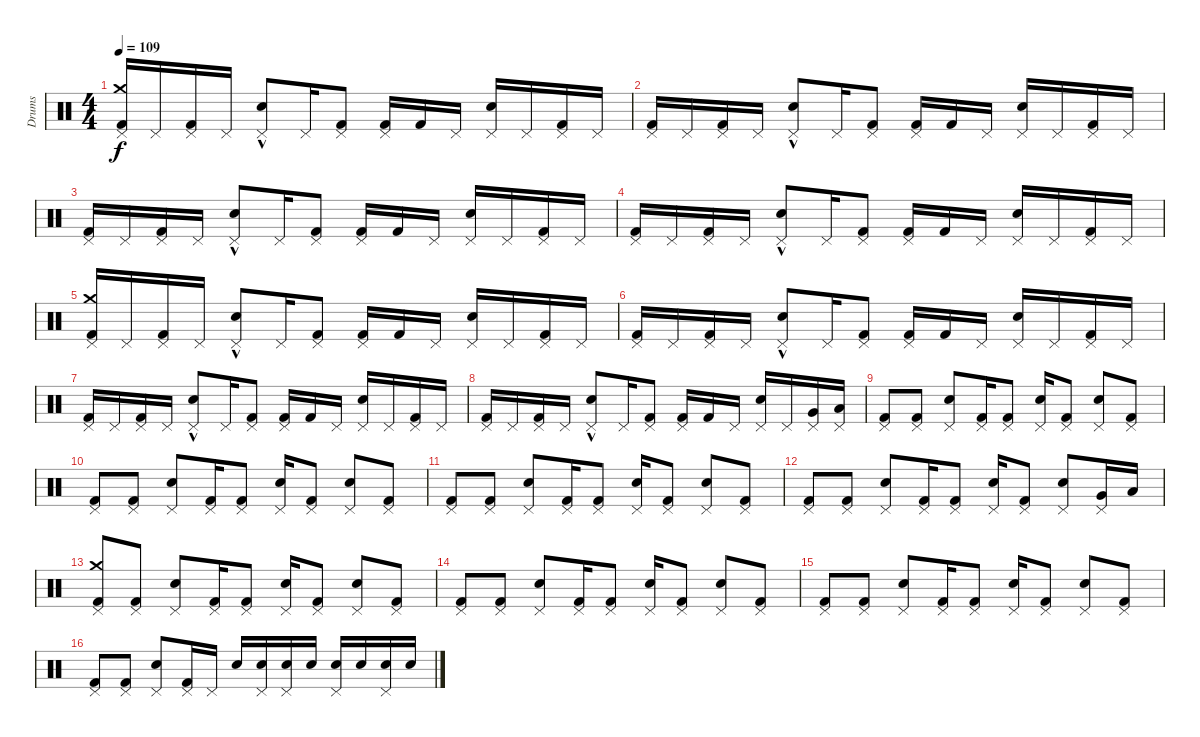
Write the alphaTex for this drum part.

\track ("Drums" "Drums") {instrument percussion}
\staff {score}
\articulation defaults
\ts (4 4)
\tempo 109
\clef neutral
\ks c
("Pedal Hi-Hat (hit)" "Crash medium (hit)" "Kick (hit) 2").16{dy f} "Pedal Hi-Hat (hit)".16 ("Pedal Hi-Hat (hit)" "Kick (hit) 2").16 "Pedal Hi-Hat (hit)".16 ("Pedal Hi-Hat (hit)" "Snare (hit) 2"{hac}).8 "Pedal Hi-Hat (hit)".16 ("Pedal Hi-Hat (hit)" "Kick (hit) 2").8 ("Pedal Hi-Hat (hit)" "Kick (hit) 2").16 "Kick (hit) 2".16 "Pedal Hi-Hat (hit)".16 ("Pedal Hi-Hat (hit)" "Snare (hit) 2").16 "Pedal Hi-Hat (hit)".16 ("Pedal Hi-Hat (hit)" "Kick (hit) 2").16 "Pedal Hi-Hat (hit)".16 |
("Kick (hit) 2" "Pedal Hi-Hat (hit)").16 "Pedal Hi-Hat (hit)".16 ("Kick (hit) 2" "Pedal Hi-Hat (hit)").16 "Pedal Hi-Hat (hit)".16 ("Snare (hit) 2"{hac} "Pedal Hi-Hat (hit)").8 "Pedal Hi-Hat (hit)".16 ("Kick (hit) 2" "Pedal Hi-Hat (hit)").8 ("Kick (hit) 2" "Pedal Hi-Hat (hit)").16 "Kick (hit) 2".16 "Pedal Hi-Hat (hit)".16 ("Snare (hit) 2" "Pedal Hi-Hat (hit)").16 "Pedal Hi-Hat (hit)".16 ("Kick (hit) 2" "Pedal Hi-Hat (hit)").16 "Pedal Hi-Hat (hit)".16 |
("Pedal Hi-Hat (hit)" "Kick (hit) 2").16 "Pedal Hi-Hat (hit)".16 ("Pedal Hi-Hat (hit)" "Kick (hit) 2").16 "Pedal Hi-Hat (hit)".16 ("Pedal Hi-Hat (hit)" "Snare (hit) 2"{hac}).8 "Pedal Hi-Hat (hit)".16 ("Pedal Hi-Hat (hit)" "Kick (hit) 2").8 ("Pedal Hi-Hat (hit)" "Kick (hit) 2").16 "Kick (hit) 2".16 "Pedal Hi-Hat (hit)".16 ("Pedal Hi-Hat (hit)" "Snare (hit) 2").16 "Pedal Hi-Hat (hit)".16 ("Pedal Hi-Hat (hit)" "Kick (hit) 2").16 "Pedal Hi-Hat (hit)".16 |
("Pedal Hi-Hat (hit)" "Kick (hit) 2").16 "Pedal Hi-Hat (hit)".16 ("Pedal Hi-Hat (hit)" "Kick (hit) 2").16 "Pedal Hi-Hat (hit)".16 ("Pedal Hi-Hat (hit)" "Snare (hit) 2"{hac}).8 "Pedal Hi-Hat (hit)".16 ("Pedal Hi-Hat (hit)" "Kick (hit) 2").8 ("Pedal Hi-Hat (hit)" "Kick (hit) 2").16 "Kick (hit) 2".16 "Pedal Hi-Hat (hit)".16 ("Pedal Hi-Hat (hit)" "Snare (hit) 2").16 "Pedal Hi-Hat (hit)".16 ("Pedal Hi-Hat (hit)" "Kick (hit) 2").16 "Pedal Hi-Hat (hit)".16 |
("Crash medium (hit)" "Kick (hit) 2" "Pedal Hi-Hat (hit)").16 "Pedal Hi-Hat (hit)".16 ("Kick (hit) 2" "Pedal Hi-Hat (hit)").16 "Pedal Hi-Hat (hit)".16 ("Snare (hit) 2"{hac} "Pedal Hi-Hat (hit)").8 "Pedal Hi-Hat (hit)".16 ("Kick (hit) 2" "Pedal Hi-Hat (hit)").8 ("Kick (hit) 2" "Pedal Hi-Hat (hit)").16 "Kick (hit) 2".16 "Pedal Hi-Hat (hit)".16 ("Snare (hit) 2" "Pedal Hi-Hat (hit)").16 "Pedal Hi-Hat (hit)".16 ("Kick (hit) 2" "Pedal Hi-Hat (hit)").16 "Pedal Hi-Hat (hit)".16 |
("Kick (hit) 2" "Pedal Hi-Hat (hit)").16 "Pedal Hi-Hat (hit)".16 ("Kick (hit) 2" "Pedal Hi-Hat (hit)").16 "Pedal Hi-Hat (hit)".16 ("Snare (hit) 2"{hac} "Pedal Hi-Hat (hit)").8 "Pedal Hi-Hat (hit)".16 ("Kick (hit) 2" "Pedal Hi-Hat (hit)").8 ("Kick (hit) 2" "Pedal Hi-Hat (hit)").16 "Kick (hit) 2".16 "Pedal Hi-Hat (hit)".16 ("Snare (hit) 2" "Pedal Hi-Hat (hit)").16 "Pedal Hi-Hat (hit)".16 ("Kick (hit) 2" "Pedal Hi-Hat (hit)").16 "Pedal Hi-Hat (hit)".16 |
("Kick (hit) 2" "Pedal Hi-Hat (hit)").16 "Pedal Hi-Hat (hit)".16 ("Kick (hit) 2" "Pedal Hi-Hat (hit)").16 "Pedal Hi-Hat (hit)".16 ("Snare (hit) 2"{hac} "Pedal Hi-Hat (hit)").8 "Pedal Hi-Hat (hit)".16 ("Kick (hit) 2" "Pedal Hi-Hat (hit)").8 ("Kick (hit) 2" "Pedal Hi-Hat (hit)").16 "Kick (hit) 2".16 "Pedal Hi-Hat (hit)".16 ("Snare (hit) 2" "Pedal Hi-Hat (hit)").16 "Pedal Hi-Hat (hit)".16 ("Kick (hit) 2" "Pedal Hi-Hat (hit)").16 "Pedal Hi-Hat (hit)".16 |
("Pedal Hi-Hat (hit)" "Kick (hit) 2").16 "Pedal Hi-Hat (hit)".16 ("Pedal Hi-Hat (hit)" "Kick (hit) 2").16 "Pedal Hi-Hat (hit)".16 ("Pedal Hi-Hat (hit)" "Snare (hit) 2"{hac}).8 "Pedal Hi-Hat (hit)".16 ("Pedal Hi-Hat (hit)" "Kick (hit) 2").8 ("Pedal Hi-Hat (hit)" "Kick (hit) 2").16 "Kick (hit) 2".16 "Pedal Hi-Hat (hit)".16 ("Pedal Hi-Hat (hit)" "Snare (hit) 2").16 "Pedal Hi-Hat (hit)".16 ("Pedal Hi-Hat (hit)" "Very Low Tom (hit)").16 ("Pedal Hi-Hat (hit)" "Low Floor Tom (hit)").16 |
("Pedal Hi-Hat (hit)" "Kick (hit) 2").8 ("Pedal Hi-Hat (hit)" "Kick (hit) 2").8 ("Pedal Hi-Hat (hit)" "Snare (hit) 2").8 ("Pedal Hi-Hat (hit)" "Kick (hit) 2").16 ("Pedal Hi-Hat (hit)" "Kick (hit) 2").8 ("Pedal Hi-Hat (hit)" "Snare (hit) 2").16 ("Pedal Hi-Hat (hit)" "Kick (hit) 2").8 ("Pedal Hi-Hat (hit)" "Snare (hit) 2").8 ("Pedal Hi-Hat (hit)" "Kick (hit) 2").8 |
("Pedal Hi-Hat (hit)" "Kick (hit) 2").8 ("Pedal Hi-Hat (hit)" "Kick (hit) 2").8 ("Pedal Hi-Hat (hit)" "Snare (hit) 2").8 ("Pedal Hi-Hat (hit)" "Kick (hit) 2").16 ("Pedal Hi-Hat (hit)" "Kick (hit) 2").8 ("Pedal Hi-Hat (hit)" "Snare (hit) 2").16 ("Pedal Hi-Hat (hit)" "Kick (hit) 2").8 ("Pedal Hi-Hat (hit)" "Snare (hit) 2").8 ("Pedal Hi-Hat (hit)" "Kick (hit) 2").8 |
("Pedal Hi-Hat (hit)" "Kick (hit) 2").8 ("Pedal Hi-Hat (hit)" "Kick (hit) 2").8 ("Pedal Hi-Hat (hit)" "Snare (hit) 2").8 ("Pedal Hi-Hat (hit)" "Kick (hit) 2").16 ("Pedal Hi-Hat (hit)" "Kick (hit) 2").8 ("Pedal Hi-Hat (hit)" "Snare (hit) 2").16 ("Pedal Hi-Hat (hit)" "Kick (hit) 2").8 ("Pedal Hi-Hat (hit)" "Snare (hit) 2").8 ("Pedal Hi-Hat (hit)" "Kick (hit) 2").8 |
("Pedal Hi-Hat (hit)" "Kick (hit) 2").8 ("Pedal Hi-Hat (hit)" "Kick (hit) 2").8 ("Pedal Hi-Hat (hit)" "Snare (hit) 2").8 ("Pedal Hi-Hat (hit)" "Kick (hit) 2").16 ("Pedal Hi-Hat (hit)" "Kick (hit) 2").8 ("Pedal Hi-Hat (hit)" "Snare (hit) 2").16 ("Pedal Hi-Hat (hit)" "Kick (hit) 2").8 ("Pedal Hi-Hat (hit)" "Snare (hit) 2").8 ("Very Low Tom (hit)" "Pedal Hi-Hat (hit)").16 "Low Floor Tom (hit)".16 |
("Crash medium (hit)" "Pedal Hi-Hat (hit)" "Kick (hit) 2").8 ("Pedal Hi-Hat (hit)" "Kick (hit) 2").8 ("Pedal Hi-Hat (hit)" "Snare (hit) 2").8 ("Pedal Hi-Hat (hit)" "Kick (hit) 2").16 ("Pedal Hi-Hat (hit)" "Kick (hit) 2").8 ("Pedal Hi-Hat (hit)" "Snare (hit) 2").16 ("Pedal Hi-Hat (hit)" "Kick (hit) 2").8 ("Pedal Hi-Hat (hit)" "Snare (hit) 2").8 ("Pedal Hi-Hat (hit)" "Kick (hit) 2").8 |
("Pedal Hi-Hat (hit)" "Kick (hit) 2").8 ("Pedal Hi-Hat (hit)" "Kick (hit) 2").8 ("Pedal Hi-Hat (hit)" "Snare (hit) 2").8 ("Pedal Hi-Hat (hit)" "Kick (hit) 2").16 ("Pedal Hi-Hat (hit)" "Kick (hit) 2").8 ("Pedal Hi-Hat (hit)" "Snare (hit) 2").16 ("Pedal Hi-Hat (hit)" "Kick (hit) 2").8 ("Pedal Hi-Hat (hit)" "Snare (hit) 2").8 ("Pedal Hi-Hat (hit)" "Kick (hit) 2").8 |
("Pedal Hi-Hat (hit)" "Kick (hit) 2").8 ("Pedal Hi-Hat (hit)" "Kick (hit) 2").8 ("Pedal Hi-Hat (hit)" "Snare (hit) 2").8 ("Pedal Hi-Hat (hit)" "Kick (hit) 2").16 ("Pedal Hi-Hat (hit)" "Kick (hit) 2").8 ("Pedal Hi-Hat (hit)" "Snare (hit) 2").16 ("Pedal Hi-Hat (hit)" "Kick (hit) 2").8 ("Pedal Hi-Hat (hit)" "Snare (hit) 2").8 ("Pedal Hi-Hat (hit)" "Kick (hit) 2").8 |
("Pedal Hi-Hat (hit)" "Kick (hit) 2").8 ("Pedal Hi-Hat (hit)" "Kick (hit) 2").8 ("Pedal Hi-Hat (hit)" "Snare (hit) 2").8 ("Pedal Hi-Hat (hit)" "Kick (hit) 2").16 "Pedal Hi-Hat (hit)".16 "Snare (hit) 2".16 ("Snare (hit) 2" "Pedal Hi-Hat (hit)").16 ("Snare (hit) 2" "Pedal Hi-Hat (hit)").16 "Snare (hit) 2".16 ("Snare (hit) 2" "Pedal Hi-Hat (hit)").16 "Snare (hit) 2".16 ("Snare (hit) 2" "Pedal Hi-Hat (hit)").16 "Snare (hit) 2".16
